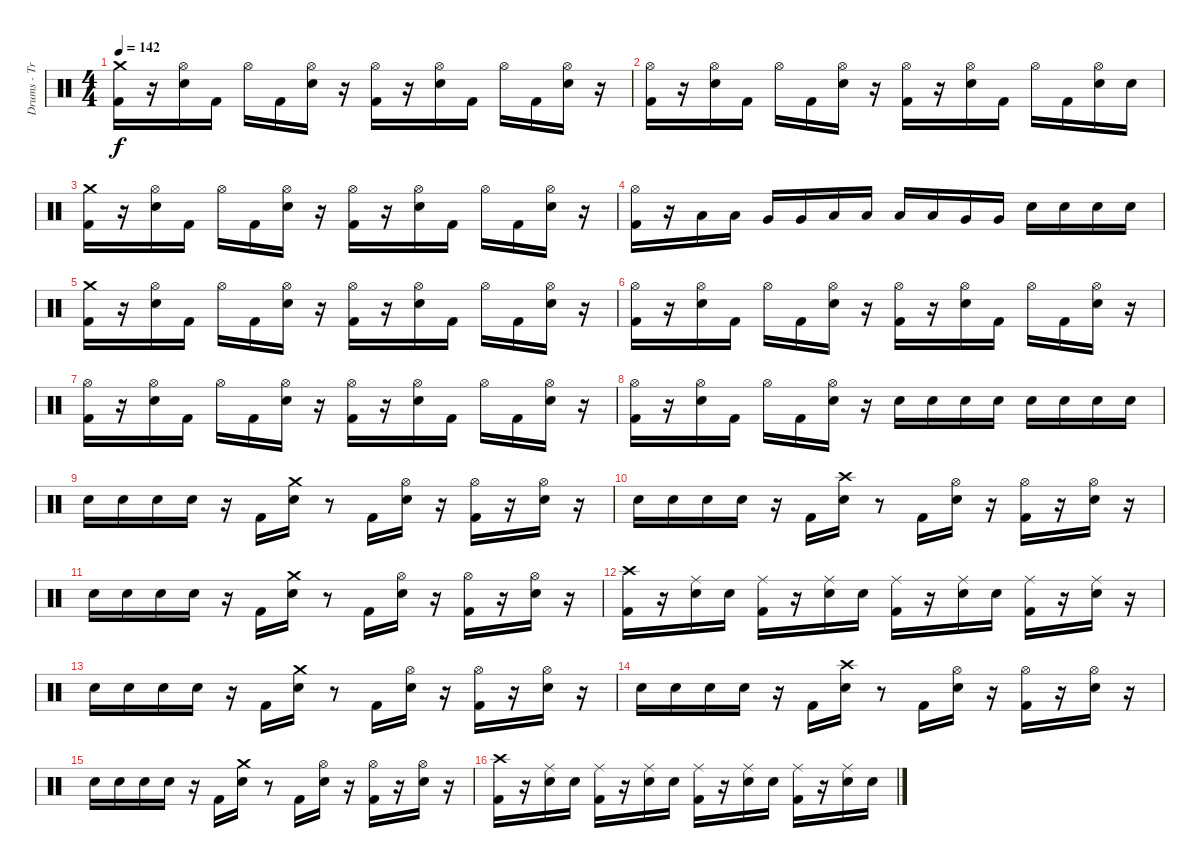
\track ("Drums - Travis" "Drums - Tr") {instrument percussion}
\staff {score}
\articulation defaults
\ts (4 4)
\tempo 142
\clef neutral
\ks c
("Kick (hit) 2" "Crash medium (hit)").16{dy f} r.16 ("Electric Snare (hit)" "Hi-Hat (open)").16 "Kick (hit) 2".16 "Hi-Hat (open)".16 "Kick (hit) 2".16 ("Electric Snare (hit)" "Hi-Hat (open)").16 r.16 ("Kick (hit) 2" "Hi-Hat (open)").16 r.16 ("Electric Snare (hit)" "Hi-Hat (open)").16 "Kick (hit) 2".16 "Hi-Hat (open)".16 "Kick (hit) 2".16 ("Electric Snare (hit)" "Hi-Hat (open)").16 r.16 |
("Kick (hit) 2" "Hi-Hat (open)").16 r.16 ("Electric Snare (hit)" "Hi-Hat (open)").16 "Kick (hit) 2".16 "Hi-Hat (open)".16 "Kick (hit) 2".16 ("Electric Snare (hit)" "Hi-Hat (open)").16 r.16 ("Kick (hit) 2" "Hi-Hat (open)").16 r.16 ("Electric Snare (hit)" "Hi-Hat (open)").16 "Kick (hit) 2".16 "Hi-Hat (open)".16 "Kick (hit) 2".16 ("Electric Snare (hit)" "Hi-Hat (open)").16 "Electric Snare (hit)".16 |
("Kick (hit) 2" "Crash medium (hit)").16 r.16 ("Electric Snare (hit)" "Hi-Hat (open)").16 "Kick (hit) 2".16 "Hi-Hat (open)".16 "Kick (hit) 2".16 ("Electric Snare (hit)" "Hi-Hat (open)").16 r.16 ("Kick (hit) 2" "Hi-Hat (open)").16 r.16 ("Electric Snare (hit)" "Hi-Hat (open)").16 "Kick (hit) 2".16 "Hi-Hat (open)".16 "Kick (hit) 2".16 ("Electric Snare (hit)" "Hi-Hat (open)").16 r.16 |
("Kick (hit) 2" "Hi-Hat (open)").16 r.16 "Low Tom (hit)".16 "Low Tom (hit)".16 "Very Low Tom (hit)".16 "Very Low Tom (hit)".16 "Low Floor Tom (hit)".16 "Low Floor Tom (hit)".16 "Low Tom (hit)".16 "Low Tom (hit)".16 "Very Low Tom (hit)".16 "Very Low Tom (hit)".16 "Electric Snare (hit)".16 "Electric Snare (hit)".16 "Electric Snare (hit)".16 "Electric Snare (hit)".16 |
("Kick (hit) 2" "Crash medium (hit)").16 r.16 ("Electric Snare (hit)" "Hi-Hat (open)").16 "Kick (hit) 2".16 "Hi-Hat (open)".16 "Kick (hit) 2".16 ("Electric Snare (hit)" "Hi-Hat (open)").16 r.16 ("Kick (hit) 2" "Hi-Hat (open)").16 r.16 ("Electric Snare (hit)" "Hi-Hat (open)").16 "Kick (hit) 2".16 "Hi-Hat (open)".16 "Kick (hit) 2".16 ("Electric Snare (hit)" "Hi-Hat (open)").16 r.16 |
("Kick (hit) 2" "Hi-Hat (open)").16 r.16 ("Electric Snare (hit)" "Hi-Hat (open)").16 "Kick (hit) 2".16 "Hi-Hat (open)".16 "Kick (hit) 2".16 ("Electric Snare (hit)" "Hi-Hat (open)").16 r.16 ("Kick (hit) 2" "Hi-Hat (open)").16 r.16 ("Electric Snare (hit)" "Hi-Hat (open)").16 "Kick (hit) 2".16 "Hi-Hat (open)".16 "Kick (hit) 2".16 ("Electric Snare (hit)" "Hi-Hat (open)").16 r.16 |
("Kick (hit) 2" "Hi-Hat (open)").16 r.16 ("Electric Snare (hit)" "Hi-Hat (open)").16 "Kick (hit) 2".16 "Hi-Hat (open)".16 "Kick (hit) 2".16 ("Electric Snare (hit)" "Hi-Hat (open)").16 r.16 ("Kick (hit) 2" "Hi-Hat (open)").16 r.16 ("Electric Snare (hit)" "Hi-Hat (open)").16 "Kick (hit) 2".16 "Hi-Hat (open)".16 "Kick (hit) 2".16 ("Electric Snare (hit)" "Hi-Hat (open)").16 r.16 |
("Kick (hit) 2" "Hi-Hat (open)").16 r.16 ("Electric Snare (hit)" "Hi-Hat (open)").16 "Kick (hit) 2".16 "Hi-Hat (open)".16 "Kick (hit) 2".16 ("Electric Snare (hit)" "Hi-Hat (open)").16 r.16 "Electric Snare (hit)".16 "Electric Snare (hit)".16 "Electric Snare (hit)".16 "Electric Snare (hit)".16 "Electric Snare (hit)".16 "Electric Snare (hit)".16 "Electric Snare (hit)".16 "Electric Snare (hit)".16 |
"Electric Snare (hit)".16 "Electric Snare (hit)".16 "Electric Snare (hit)".16 "Electric Snare (hit)".16 r.16 "Kick (hit) 2".16 ("Electric Snare (hit)" "Crash medium (hit)").16 r.8 "Kick (hit) 2".16 ("Hi-Hat (open)" "Electric Snare (hit)").16 r.16 ("Hi-Hat (open)" "Kick (hit) 2").16 r.16 ("Hi-Hat (open)" "Electric Snare (hit)").16 r.16 |
"Electric Snare (hit)".16 "Electric Snare (hit)".16 "Electric Snare (hit)".16 "Electric Snare (hit)".16 r.16 "Kick (hit) 2".16 ("Electric Snare (hit)" "Crash high (hit)").16 r.8 "Kick (hit) 2".16 ("Hi-Hat (open)" "Electric Snare (hit)").16 r.16 ("Hi-Hat (open)" "Kick (hit) 2").16 r.16 ("Hi-Hat (open)" "Electric Snare (hit)").16 r.16 |
"Electric Snare (hit)".16 "Electric Snare (hit)".16 "Electric Snare (hit)".16 "Electric Snare (hit)".16 r.16 "Kick (hit) 2".16 ("Electric Snare (hit)" "Crash medium (hit)").16 r.8 "Kick (hit) 2".16 ("Hi-Hat (open)" "Electric Snare (hit)").16 r.16 ("Hi-Hat (open)" "Kick (hit) 2").16 r.16 ("Hi-Hat (open)" "Electric Snare (hit)").16 r.16 |
("Kick (hit) 2" "Crash high (hit)").16 r.16 ("Electric Snare (hit)" "Ride (middle)").16 "Electric Snare (hit)".16 ("Kick (hit) 2" "Ride (middle)").16 r.16 ("Electric Snare (hit)" "Ride (middle)").16 "Electric Snare (hit)".16 ("Kick (hit) 2" "Ride (middle)").16 r.16 ("Electric Snare (hit)" "Ride (middle)").16 "Electric Snare (hit)".16 ("Kick (hit) 2" "Ride (middle)").16 r.16 ("Electric Snare (hit)" "Ride (middle)").16 r.16 |
"Electric Snare (hit)".16 "Electric Snare (hit)".16 "Electric Snare (hit)".16 "Electric Snare (hit)".16 r.16 "Kick (hit) 2".16 ("Electric Snare (hit)" "Crash medium (hit)").16 r.8 "Kick (hit) 2".16 ("Hi-Hat (open)" "Electric Snare (hit)").16 r.16 ("Hi-Hat (open)" "Kick (hit) 2").16 r.16 ("Hi-Hat (open)" "Electric Snare (hit)").16 r.16 |
"Electric Snare (hit)".16 "Electric Snare (hit)".16 "Electric Snare (hit)".16 "Electric Snare (hit)".16 r.16 "Kick (hit) 2".16 ("Electric Snare (hit)" "Crash high (hit)").16 r.8 "Kick (hit) 2".16 ("Hi-Hat (open)" "Electric Snare (hit)").16 r.16 ("Hi-Hat (open)" "Kick (hit) 2").16 r.16 ("Hi-Hat (open)" "Electric Snare (hit)").16 r.16 |
"Electric Snare (hit)".16 "Electric Snare (hit)".16 "Electric Snare (hit)".16 "Electric Snare (hit)".16 r.16 "Kick (hit) 2".16 ("Electric Snare (hit)" "Crash medium (hit)").16 r.8 "Kick (hit) 2".16 ("Hi-Hat (open)" "Electric Snare (hit)").16 r.16 ("Hi-Hat (open)" "Kick (hit) 2").16 r.16 ("Hi-Hat (open)" "Electric Snare (hit)").16 r.16 |
("Kick (hit) 2" "Crash high (hit)").16 r.16 ("Electric Snare (hit)" "Ride (middle)").16 "Electric Snare (hit)".16 ("Kick (hit) 2" "Ride (middle)").16 r.16 ("Electric Snare (hit)" "Ride (middle)").16 "Electric Snare (hit)".16 ("Kick (hit) 2" "Ride (middle)").16 r.16 ("Electric Snare (hit)" "Ride (middle)").16 "Electric Snare (hit)".16 ("Kick (hit) 2" "Ride (middle)").16 r.16 ("Electric Snare (hit)" "Ride (middle)").16 "Electric Snare (hit)".16
